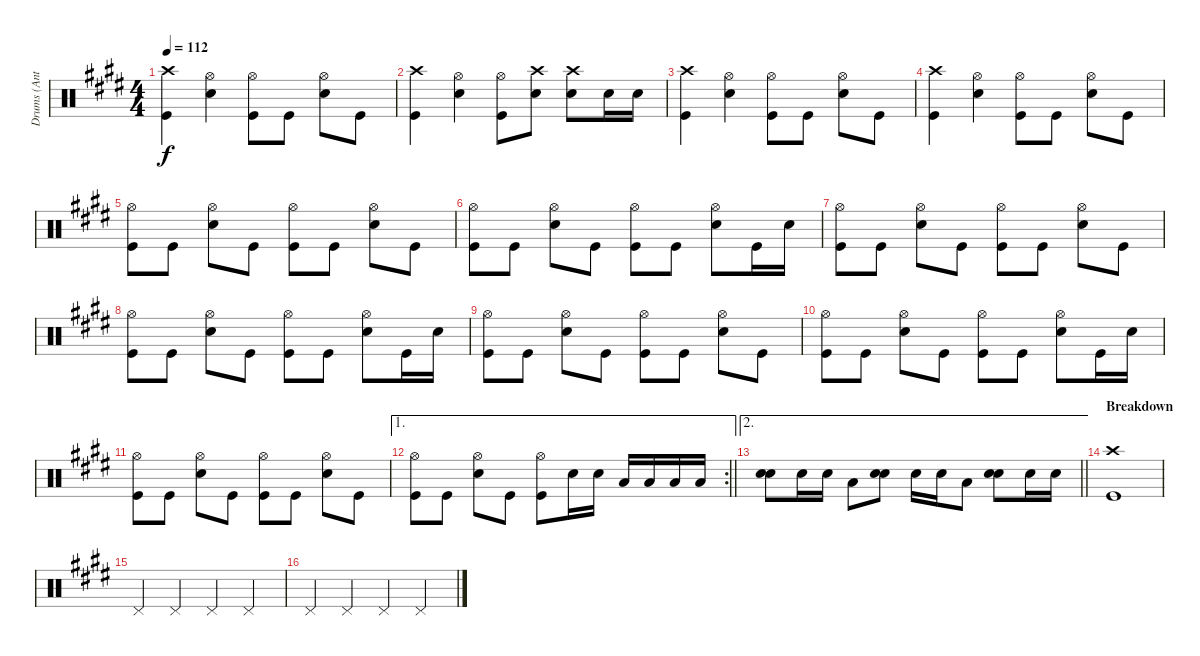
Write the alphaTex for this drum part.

\track ("Drums (Ant)" "Drums (Ant") {instrument percussion}
\staff {score}
\articulation defaults
\ts (4 4)
\tempo 112
\clef neutral
\ks e
("Crash high (hit)" "Kick (hit)").4{dy f} ("Hi-Hat (open)" "Snare (hit) 2").4 ("Hi-Hat (open)" "Kick (hit)").8 "Kick (hit)".8 ("Hi-Hat (open)" "Snare (hit) 2").8 "Kick (hit)".8 |
("Crash high (hit)" "Kick (hit)").4 ("Hi-Hat (open)" "Snare (hit) 2").4 ("Hi-Hat (open)" "Kick (hit)").8 ("Crash high (hit)" "Snare (hit) 2").8 ("Crash high (hit)" "Snare (hit) 2").8 "Snare (hit) 2".16 "Snare (hit) 2".16 |
("Crash high (hit)" "Kick (hit)").4 ("Hi-Hat (open)" "Snare (hit) 2").4 ("Hi-Hat (open)" "Kick (hit)").8 "Kick (hit)".8 ("Hi-Hat (open)" "Snare (hit) 2").8 "Kick (hit)".8 |
("Crash high (hit)" "Kick (hit)").4 ("Hi-Hat (open)" "Snare (hit) 2").4 ("Hi-Hat (open)" "Kick (hit)").8 "Kick (hit)".8 ("Hi-Hat (open)" "Snare (hit) 2").8 "Kick (hit)".8 |
("Hi-Hat (open)" "Kick (hit)").8 "Kick (hit)".8 ("Hi-Hat (open)" "Snare (hit) 2").8 "Kick (hit)".8 ("Hi-Hat (open)" "Kick (hit)").8 "Kick (hit)".8 ("Hi-Hat (open)" "Snare (hit) 2").8 "Kick (hit)".8 |
("Hi-Hat (open)" "Kick (hit)").8 "Kick (hit)".8 ("Hi-Hat (open)" "Snare (hit) 2").8 "Kick (hit)".8 ("Hi-Hat (open)" "Kick (hit)").8 "Kick (hit)".8 ("Hi-Hat (open)" "Snare (hit) 2").8 "Kick (hit)".16 "Snare (hit) 2".16 |
("Hi-Hat (open)" "Kick (hit)").8 "Kick (hit)".8 ("Hi-Hat (open)" "Snare (hit) 2").8 "Kick (hit)".8 ("Hi-Hat (open)" "Kick (hit)").8 "Kick (hit)".8 ("Hi-Hat (open)" "Snare (hit) 2").8 "Kick (hit)".8 |
("Hi-Hat (open)" "Kick (hit)").8 "Kick (hit)".8 ("Hi-Hat (open)" "Snare (hit) 2").8 "Kick (hit)".8 ("Hi-Hat (open)" "Kick (hit)").8 "Kick (hit)".8 ("Hi-Hat (open)" "Snare (hit) 2").8 "Kick (hit)".16 "Snare (hit) 2".16 |
("Hi-Hat (open)" "Kick (hit)").8 "Kick (hit)".8 ("Hi-Hat (open)" "Snare (hit) 2").8 "Kick (hit)".8 ("Hi-Hat (open)" "Kick (hit)").8 "Kick (hit)".8 ("Hi-Hat (open)" "Snare (hit) 2").8 "Kick (hit)".8 |
("Hi-Hat (open)" "Kick (hit)").8 "Kick (hit)".8 ("Hi-Hat (open)" "Snare (hit) 2").8 "Kick (hit)".8 ("Hi-Hat (open)" "Kick (hit)").8 "Kick (hit)".8 ("Hi-Hat (open)" "Snare (hit) 2").8 "Kick (hit)".16 "Snare (hit) 2".16 |
("Hi-Hat (open)" "Kick (hit)").8 "Kick (hit)".8 ("Hi-Hat (open)" "Snare (hit) 2").8 "Kick (hit)".8 ("Hi-Hat (open)" "Kick (hit)").8 "Kick (hit)".8 ("Hi-Hat (open)" "Snare (hit) 2").8 "Kick (hit)".8 |
\ae 1
\rc 2
\barLineRight lightlight
("Hi-Hat (open)" "Kick (hit)").8 "Kick (hit)".8 ("Hi-Hat (open)" "Snare (hit) 2").8 "Kick (hit)".8 ("Hi-Hat (open)" "Kick (hit)").8 "Snare (hit) 2".16 "Snare (hit) 2".16 "Low Tom (hit)".16 "Low Tom (hit)".16 "Low Floor Tom (hit)".16 "Low Floor Tom (hit)".16 |
\ae 2
\barLineRight lightlight
("Snare (hit) 2" "Snare (hit) 2").8 "Snare (hit) 2".16 "Snare (hit) 2".16 "Low Tom (hit)".8 ("Snare (hit) 2" "Snare (hit) 2").8 "Snare (hit) 2".16 "Snare (hit) 2".16 "Low Tom (hit)".8 ("Snare (hit) 2" "Snare (hit) 2").8 "Snare (hit) 2".16 "Snare (hit) 2".16 |
\section ("" "Breakdown")
("Crash high (hit)" "Kick (hit)").1 |
"Pedal Hi-Hat (hit)".4 "Pedal Hi-Hat (hit)".4 "Pedal Hi-Hat (hit)".4 "Pedal Hi-Hat (hit)".4 |
"Pedal Hi-Hat (hit)".4 "Pedal Hi-Hat (hit)".4 "Pedal Hi-Hat (hit)".4 "Pedal Hi-Hat (hit)".4
